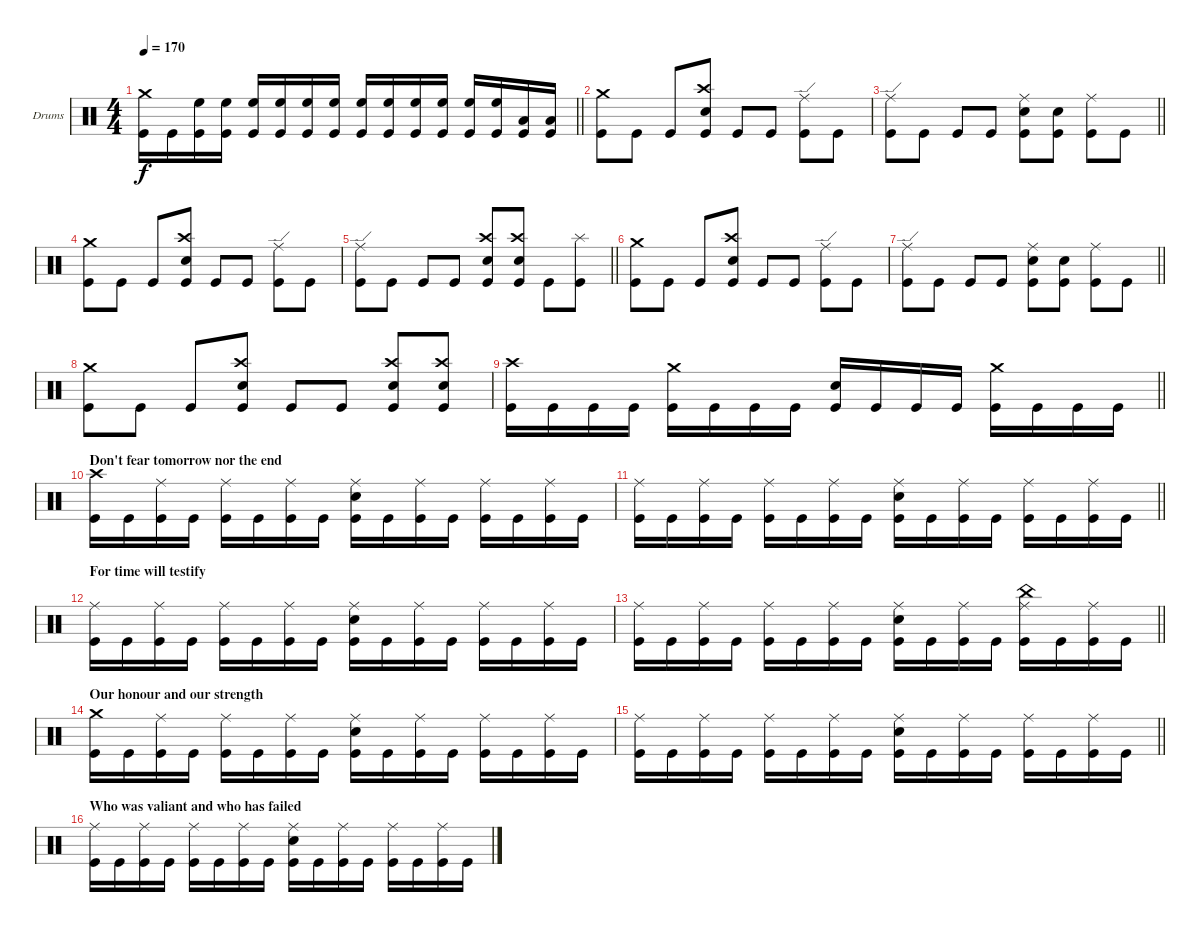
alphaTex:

\bracketExtendMode groupsimilarinstruments
\firstSystemTrackNameOrientation horizontal
\otherSystemsTrackNameOrientation horizontal
\track ("Drumkit" "Drums") {instrument percussion}
\staff {score}
\articulation defaults
\ts (4 4)
\tempo 170
\clef neutral
\barLineRight lightlight
\ks c
("Crash medium (hit)" "Kick (hit)").16{dy f} "Kick (hit)".16 ("High Floor Tom (hit)" "Kick (hit)").16 ("High Floor Tom (hit)" "Kick (hit)").16 ("High Floor Tom (hit)" "Kick (hit)").16 ("High Floor Tom (hit)" "Kick (hit)").16 ("High Floor Tom (hit)" "Kick (hit)").16 ("High Floor Tom (hit)" "Kick (hit)").16 ("High Floor Tom (hit)" "Kick (hit)").16 ("High Floor Tom (hit)" "Kick (hit)").16 ("High Floor Tom (hit)" "Kick (hit)").16 ("High Floor Tom (hit)" "Kick (hit)").16 ("High Floor Tom (hit)" "Kick (hit)").16 ("High Floor Tom (hit)" "Kick (hit)").16 ("Low Tom (hit)" "Kick (hit)").16 ("Low Tom (hit)" "Kick (hit)").16 |
("Crash medium (hit)" "Kick (hit)").8 "Kick (hit)".8 "Kick (hit)".8 ("Crash high (hit)" "Snare (hit) 2" "Kick (hit)").8 "Kick (hit)".8 "Kick (hit)".8 ("Ride (edge)" "Kick (hit)").8 "Kick (hit)".8 |
\barLineRight lightlight
("Ride (edge)" "Kick (hit)").8 "Kick (hit)".8 "Kick (hit)".8 "Kick (hit)".8 ("Ride (middle)" "Snare (hit) 2" "Kick (hit)").8 ("Snare (hit) 2" "Kick (hit)").8 ("Ride (middle)" "Kick (hit)").8 "Kick (hit)".8 |
("Crash medium (hit)" "Kick (hit)").8 "Kick (hit)".8 "Kick (hit)".8 ("Crash high (hit)" "Snare (hit) 2" "Kick (hit)").8 "Kick (hit)".8 "Kick (hit)".8 ("Ride (edge)" "Kick (hit)").8 "Kick (hit)".8 |
\barLineRight lightlight
("Ride (edge)" "Kick (hit)").8 "Kick (hit)".8 "Kick (hit)".8 "Kick (hit)".8 ("Crash high (hit)" "Snare (hit) 2" "Kick (hit)").8 ("Crash high (hit)" "Snare (hit) 2" "Kick (hit)").8 "Kick (hit)".8 ("Splash (hit)" "Kick (hit)").8 |
("Crash medium (hit)" "Kick (hit)").8 "Kick (hit)".8 "Kick (hit)".8 ("Crash high (hit)" "Snare (hit) 2" "Kick (hit)").8 "Kick (hit)".8 "Kick (hit)".8 ("Ride (edge)" "Kick (hit)").8 "Kick (hit)".8 |
\barLineRight lightlight
("Ride (edge)" "Kick (hit)").8 "Kick (hit)".8 "Kick (hit)".8 "Kick (hit)".8 ("Ride (middle)" "Snare (hit) 2" "Kick (hit)").8 ("Snare (hit) 2" "Kick (hit)").8 ("Ride (middle)" "Kick (hit)").8 "Kick (hit)".8 |
("Crash medium (hit)" "Kick (hit)").8 "Kick (hit)".8 "Kick (hit)".8 ("Crash high (hit)" "Snare (hit) 2" "Kick (hit)").8 "Kick (hit)".8 "Kick (hit)".8 ("Crash high (hit)" "Snare (hit) 2" "Kick (hit)").8 ("Crash high (hit)" "Snare (hit) 2" "Kick (hit)").8 |
\barLineRight lightlight
("Crash high (hit)" "Kick (hit)").16 "Kick (hit)".16 "Kick (hit)".16 "Kick (hit)".16 ("Crash medium (hit)" "Kick (hit)").16 "Kick (hit)".16 "Kick (hit)".16 "Kick (hit)".16 ("Snare (hit) 2" "Kick (hit)").16 "Kick (hit)".16 "Kick (hit)".16 "Kick (hit)".16 ("Crash medium (hit)" "Kick (hit)").16 "Kick (hit)".16 "Kick (hit)".16 "Kick (hit)".16 |
\section ("" "Don't fear tomorrow nor the end")
("Crash high (hit)" "Kick (hit)").16 "Kick (hit)".16 ("Ride (middle)" "Kick (hit)").16 "Kick (hit)".16 ("Ride (middle)" "Kick (hit)").16 "Kick (hit)".16 ("Ride (middle)" "Kick (hit)").16 "Kick (hit)".16 ("Ride (middle)" "Snare (hit) 2" "Kick (hit)").16 "Kick (hit)".16 ("Ride (middle)" "Kick (hit)").16 "Kick (hit)".16 ("Ride (middle)" "Kick (hit)").16 "Kick (hit)".16 ("Ride (middle)" "Kick (hit)").16 "Kick (hit)".16 |
\barLineRight lightlight
("Ride (middle)" "Kick (hit)").16 "Kick (hit)".16 ("Ride (middle)" "Kick (hit)").16 "Kick (hit)".16 ("Ride (middle)" "Kick (hit)").16 "Kick (hit)".16 ("Ride (middle)" "Kick (hit)").16 "Kick (hit)".16 ("Ride (middle)" "Snare (hit) 2" "Kick (hit)").16 "Kick (hit)".16 ("Ride (middle)" "Kick (hit)").16 "Kick (hit)".16 ("Ride (middle)" "Kick (hit)").16 "Kick (hit)".16 ("Ride (middle)" "Kick (hit)").16 "Kick (hit)".16 |
\section ("" "For time will testify")
("Ride (middle)" "Kick (hit)").16 "Kick (hit)".16 ("Ride (middle)" "Kick (hit)").16 "Kick (hit)".16 ("Ride (middle)" "Kick (hit)").16 "Kick (hit)".16 ("Ride (middle)" "Kick (hit)").16 "Kick (hit)".16 ("Ride (middle)" "Snare (hit) 2" "Kick (hit)").16 "Kick (hit)".16 ("Ride (middle)" "Kick (hit)").16 "Kick (hit)".16 ("Ride (middle)" "Kick (hit)").16 "Kick (hit)".16 ("Ride (middle)" "Kick (hit)").16 "Kick (hit)".16 |
\barLineRight lightlight
("Ride (middle)" "Kick (hit)").16 "Kick (hit)".16 ("Ride (middle)" "Kick (hit)").16 "Kick (hit)".16 ("Ride (middle)" "Kick (hit)").16 "Kick (hit)".16 ("Ride (middle)" "Kick (hit)").16 "Kick (hit)".16 ("Ride (middle)" "Snare (hit) 2" "Kick (hit)").16 "Kick (hit)".16 ("Ride (middle)" "Kick (hit)").16 "Kick (hit)".16 ("China (hit)" "Ride (middle)" "Kick (hit)").16 "Kick (hit)".16 ("Ride (middle)" "Kick (hit)").16 "Kick (hit)".16 |
\section ("" "Our honour and our strength")
("Crash medium (hit)" "Kick (hit)").16 "Kick (hit)".16 ("Ride (middle)" "Kick (hit)").16 "Kick (hit)".16 ("Ride (middle)" "Kick (hit)").16 "Kick (hit)".16 ("Ride (middle)" "Kick (hit)").16 "Kick (hit)".16 ("Ride (middle)" "Snare (hit) 2" "Kick (hit)").16 "Kick (hit)".16 ("Ride (middle)" "Kick (hit)").16 "Kick (hit)".16 ("Ride (middle)" "Kick (hit)").16 "Kick (hit)".16 ("Ride (middle)" "Kick (hit)").16 "Kick (hit)".16 |
\barLineRight lightlight
("Ride (middle)" "Kick (hit)").16 "Kick (hit)".16 ("Ride (middle)" "Kick (hit)").16 "Kick (hit)".16 ("Ride (middle)" "Kick (hit)").16 "Kick (hit)".16 ("Ride (middle)" "Kick (hit)").16 "Kick (hit)".16 ("Ride (middle)" "Snare (hit) 2" "Kick (hit)").16 "Kick (hit)".16 ("Ride (middle)" "Kick (hit)").16 "Kick (hit)".16 ("Ride (middle)" "Kick (hit)").16 "Kick (hit)".16 ("Ride (middle)" "Kick (hit)").16 "Kick (hit)".16 |
\section ("" "Who was valiant and who has failed")
("Ride (middle)" "Kick (hit)").16 "Kick (hit)".16 ("Ride (middle)" "Kick (hit)").16 "Kick (hit)".16 ("Ride (middle)" "Kick (hit)").16 "Kick (hit)".16 ("Ride (middle)" "Kick (hit)").16 "Kick (hit)".16 ("Ride (middle)" "Snare (hit) 2" "Kick (hit)").16 "Kick (hit)".16 ("Ride (middle)" "Kick (hit)").16 "Kick (hit)".16 ("Ride (middle)" "Kick (hit)").16 "Kick (hit)".16 ("Ride (middle)" "Kick (hit)").16 "Kick (hit)".16
